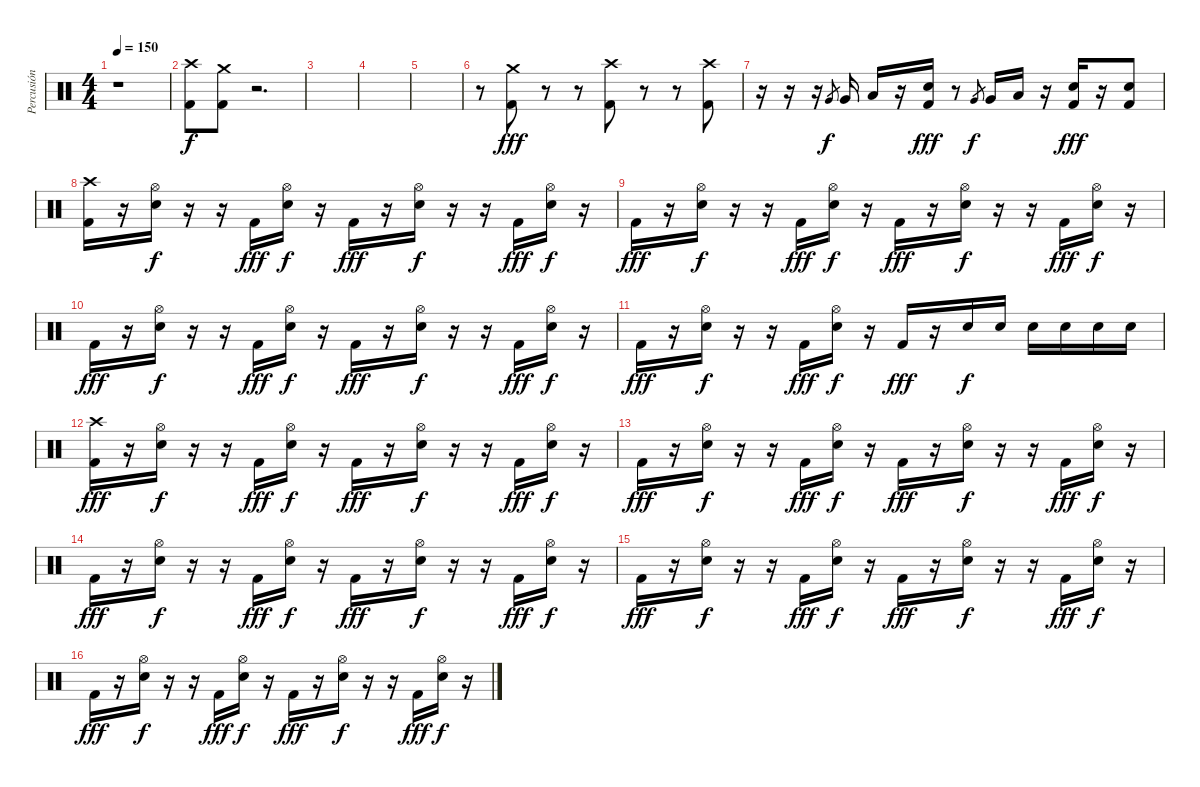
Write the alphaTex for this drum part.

\track ("Percusión" "Percusión") {instrument percussion}
\staff {score}
\articulation defaults
\ts (4 4)
\tempo 150
\tempo 155
\tempo 150
\clef neutral
\ks c
r.1{dy f} |
("Kick (hit) 2" "Crash high (hit)").8 ("Kick (hit) 2" "Crash medium (hit)").8 r.2{d} |
|
|
|
r.8 ("Kick (hit) 2" "Crash medium (hit)").8{dy fff} r.8 r.8 ("Kick (hit) 2" "Crash high (hit)").8 r.8 r.8 ("Kick (hit) 2" "Crash high (hit)").8 |
r.16 r.16 r.16 "Very Low Tom (hit)".8{gr dy f} "Very Low Tom (hit)".16 "Low Tom (hit)".16 r.16 ("Kick (hit) 2" "Electric Snare (hit)").16{dy fff} r.8 "Very Low Tom (hit)".8{gr dy f} "Very Low Tom (hit)".16 "Low Tom (hit)".16 r.16 ("Kick (hit) 2" "Electric Snare (hit)").16{dy fff} r.16 ("Kick (hit) 2" "Electric Snare (hit)").8 |
("Kick (hit) 2" "Crash high (hit)").16 r.16 ("Electric Snare (hit)" "Hi-Hat (open)").16{dy f} r.16 r.16 "Kick (hit) 2".16{dy fff} ("Electric Snare (hit)" "Hi-Hat (open)").16{dy f} r.16 "Kick (hit) 2".16{dy fff} r.16 ("Electric Snare (hit)" "Hi-Hat (open)").16{dy f} r.16 r.16 "Kick (hit) 2".16{dy fff} ("Electric Snare (hit)" "Hi-Hat (open)").16{dy f} r.16 |
"Kick (hit) 2".16{dy fff} r.16 ("Electric Snare (hit)" "Hi-Hat (open)").16{dy f} r.16 r.16 "Kick (hit) 2".16{dy fff} ("Electric Snare (hit)" "Hi-Hat (open)").16{dy f} r.16 "Kick (hit) 2".16{dy fff} r.16 ("Electric Snare (hit)" "Hi-Hat (open)").16{dy f} r.16 r.16 "Kick (hit) 2".16{dy fff} ("Electric Snare (hit)" "Hi-Hat (open)").16{dy f} r.16 |
"Kick (hit) 2".16{dy fff} r.16 ("Electric Snare (hit)" "Hi-Hat (open)").16{dy f} r.16 r.16 "Kick (hit) 2".16{dy fff} ("Electric Snare (hit)" "Hi-Hat (open)").16{dy f} r.16 "Kick (hit) 2".16{dy fff} r.16 ("Electric Snare (hit)" "Hi-Hat (open)").16{dy f} r.16 r.16 "Kick (hit) 2".16{dy fff} ("Electric Snare (hit)" "Hi-Hat (open)").16{dy f} r.16 |
"Kick (hit) 2".16{dy fff} r.16 ("Electric Snare (hit)" "Hi-Hat (open)").16{dy f} r.16 r.16 "Kick (hit) 2".16{dy fff} ("Electric Snare (hit)" "Hi-Hat (open)").16{dy f} r.16 "Kick (hit) 2".16{dy fff} r.16 "Electric Snare (hit)".16{dy f} "Electric Snare (hit)".16 "Electric Snare (hit)".16 "Electric Snare (hit)".16 "Electric Snare (hit)".16 "Electric Snare (hit)".16 |
("Kick (hit) 2" "Crash high (hit)").16{dy fff} r.16 ("Electric Snare (hit)" "Hi-Hat (open)").16{dy f} r.16 r.16 "Kick (hit) 2".16{dy fff} ("Electric Snare (hit)" "Hi-Hat (open)").16{dy f} r.16 "Kick (hit) 2".16{dy fff} r.16 ("Electric Snare (hit)" "Hi-Hat (open)").16{dy f} r.16 r.16 "Kick (hit) 2".16{dy fff} ("Electric Snare (hit)" "Hi-Hat (open)").16{dy f} r.16 |
"Kick (hit) 2".16{dy fff} r.16 ("Electric Snare (hit)" "Hi-Hat (open)").16{dy f} r.16 r.16 "Kick (hit) 2".16{dy fff} ("Electric Snare (hit)" "Hi-Hat (open)").16{dy f} r.16 "Kick (hit) 2".16{dy fff} r.16 ("Electric Snare (hit)" "Hi-Hat (open)").16{dy f} r.16 r.16 "Kick (hit) 2".16{dy fff} ("Electric Snare (hit)" "Hi-Hat (open)").16{dy f} r.16 |
"Kick (hit) 2".16{dy fff} r.16 ("Electric Snare (hit)" "Hi-Hat (open)").16{dy f} r.16 r.16 "Kick (hit) 2".16{dy fff} ("Electric Snare (hit)" "Hi-Hat (open)").16{dy f} r.16 "Kick (hit) 2".16{dy fff} r.16 ("Electric Snare (hit)" "Hi-Hat (open)").16{dy f} r.16 r.16 "Kick (hit) 2".16{dy fff} ("Electric Snare (hit)" "Hi-Hat (open)").16{dy f} r.16 |
"Kick (hit) 2".16{dy fff} r.16 ("Electric Snare (hit)" "Hi-Hat (open)").16{dy f} r.16 r.16 "Kick (hit) 2".16{dy fff} ("Electric Snare (hit)" "Hi-Hat (open)").16{dy f} r.16 "Kick (hit) 2".16{dy fff} r.16 ("Electric Snare (hit)" "Hi-Hat (open)").16{dy f} r.16 r.16 "Kick (hit) 2".16{dy fff} ("Electric Snare (hit)" "Hi-Hat (open)").16{dy f} r.16 |
"Kick (hit) 2".16{dy fff} r.16 ("Electric Snare (hit)" "Hi-Hat (open)").16{dy f} r.16 r.16 "Kick (hit) 2".16{dy fff} ("Electric Snare (hit)" "Hi-Hat (open)").16{dy f} r.16 "Kick (hit) 2".16{dy fff} r.16 ("Electric Snare (hit)" "Hi-Hat (open)").16{dy f} r.16 r.16 "Kick (hit) 2".16{dy fff} ("Electric Snare (hit)" "Hi-Hat (open)").16{dy f} r.16
